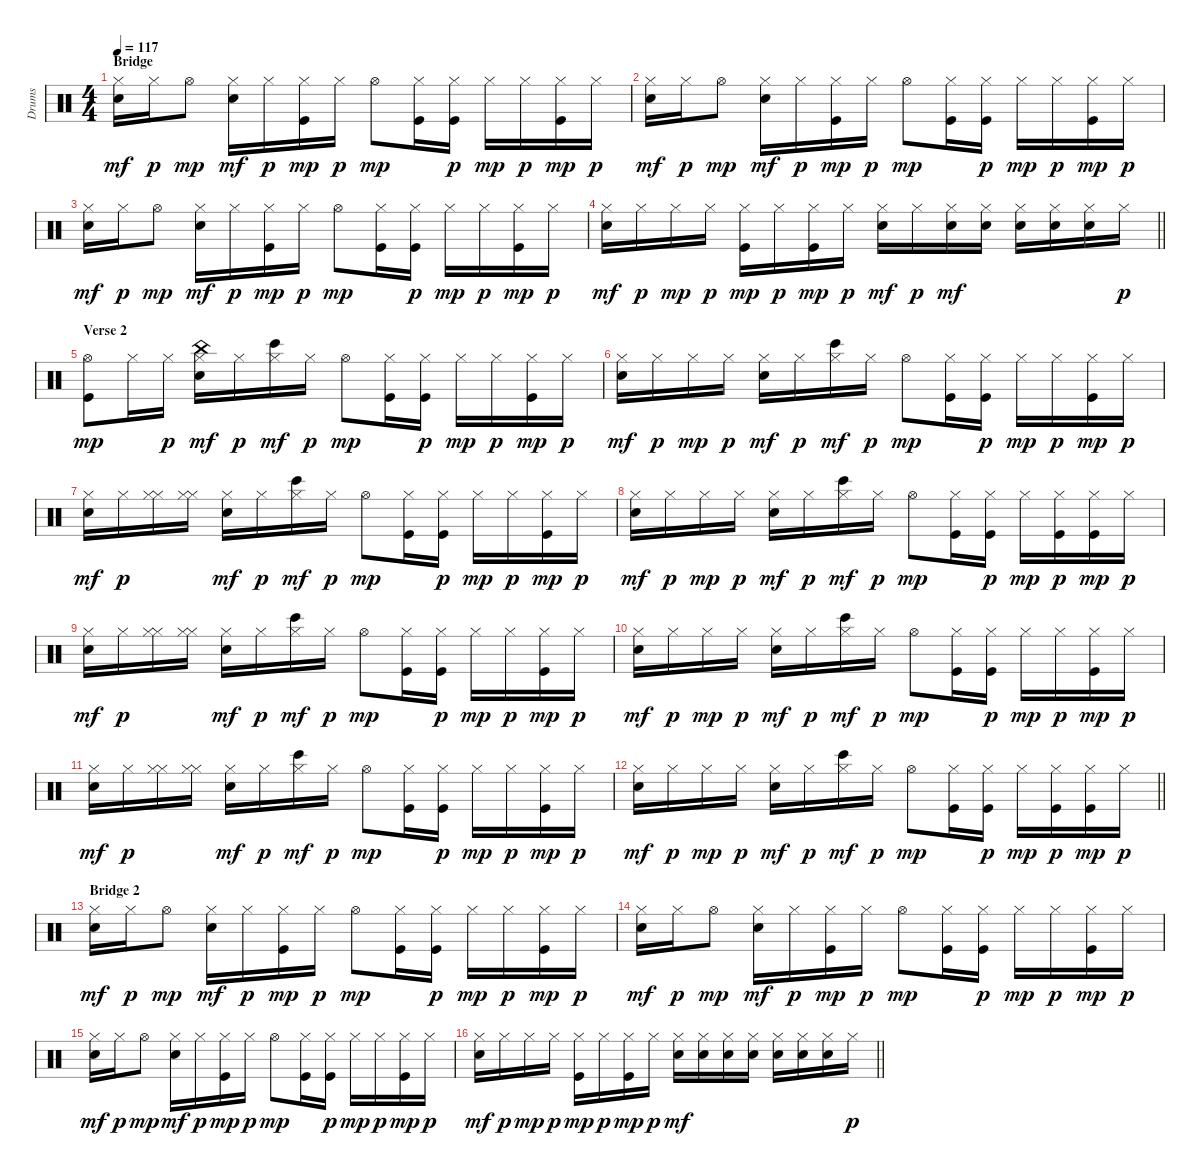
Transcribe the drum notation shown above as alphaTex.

\track ("Drums" "Drums") {instrument percussion}
\staff {score}
\articulation defaults
\ts (4 4)
\section ("" "Bridge")
\tempo 117
\clef neutral
\ks c
("Hi-Hat (closed)" "Electric Snare (hit)").16{dy mf} "Hi-Hat (closed)".16{dy p} "Hi-Hat (open)".8{dy mp} ("Hi-Hat (closed)" "Electric Snare (hit)").16{dy mf} "Hi-Hat (closed)".16{dy p} ("Hi-Hat (closed)" "Kick (hit)").16{dy mp} "Hi-Hat (closed)".16{dy p} "Hi-Hat (open)".8{dy mp} ("Hi-Hat (closed)" "Kick (hit)").16 ("Hi-Hat (closed)" "Kick (hit)").16{dy p} "Hi-Hat (closed)".16{dy mp} "Hi-Hat (closed)".16{dy p} ("Hi-Hat (closed)" "Kick (hit)").16{dy mp} "Hi-Hat (closed)".16{dy p} |
("Hi-Hat (closed)" "Electric Snare (hit)").16{dy mf} "Hi-Hat (closed)".16{dy p} "Hi-Hat (open)".8{dy mp} ("Hi-Hat (closed)" "Electric Snare (hit)").16{dy mf} "Hi-Hat (closed)".16{dy p} ("Hi-Hat (closed)" "Kick (hit)").16{dy mp} "Hi-Hat (closed)".16{dy p} "Hi-Hat (open)".8{dy mp} ("Hi-Hat (closed)" "Kick (hit)").16 ("Hi-Hat (closed)" "Kick (hit)").16{dy p} "Hi-Hat (closed)".16{dy mp} "Hi-Hat (closed)".16{dy p} ("Hi-Hat (closed)" "Kick (hit)").16{dy mp} "Hi-Hat (closed)".16{dy p} |
("Hi-Hat (closed)" "Electric Snare (hit)").16{dy mf} "Hi-Hat (closed)".16{dy p} "Hi-Hat (open)".8{dy mp} ("Hi-Hat (closed)" "Electric Snare (hit)").16{dy mf} "Hi-Hat (closed)".16{dy p} ("Hi-Hat (closed)" "Kick (hit)").16{dy mp} "Hi-Hat (closed)".16{dy p} "Hi-Hat (open)".8{dy mp} ("Hi-Hat (closed)" "Kick (hit)").16 ("Hi-Hat (closed)" "Kick (hit)").16{dy p} "Hi-Hat (closed)".16{dy mp} "Hi-Hat (closed)".16{dy p} ("Hi-Hat (closed)" "Kick (hit)").16{dy mp} "Hi-Hat (closed)".16{dy p} |
\barLineRight lightlight
("Hi-Hat (closed)" "Electric Snare (hit)").16{dy mf} "Hi-Hat (closed)".16{dy p} "Hi-Hat (closed)".16{dy mp} "Hi-Hat (closed)".16{dy p} ("Hi-Hat (closed)" "Kick (hit)").16{dy mp} "Hi-Hat (closed)".16{dy p} ("Hi-Hat (closed)" "Kick (hit)").16{dy mp} "Hi-Hat (closed)".16{dy p} ("Hi-Hat (closed)" "Electric Snare (hit)").16{dy mf} "Hi-Hat (closed)".16{dy p} ("Hi-Hat (closed)" "Electric Snare (hit)").16{dy mf} ("Hi-Hat (closed)" "Electric Snare (hit)").16 ("Hi-Hat (closed)" "Electric Snare (hit)").16 ("Hi-Hat (closed)" "Electric Snare (hit)").16 ("Hi-Hat (closed)" "Electric Snare (hit)").16 "Hi-Hat (closed)".16{dy p} |
\section ("" "Verse 2")
("Hi-Hat (open)" "Kick (hit)").8{dy mp} "Hi-Hat (closed)".16 "Hi-Hat (closed)".16{dy p} ("Hi-Hat (closed)" "China (hit)" "Electric Snare (hit)").16{dy mf} "Hi-Hat (closed)".16{dy p} ("Hi-Hat (closed)" "Bongo High (hit)").16{dy mf} "Hi-Hat (closed)".16{dy p} "Hi-Hat (open)".8{dy mp} ("Hi-Hat (closed)" "Kick (hit)").16 ("Hi-Hat (closed)" "Kick (hit)").16{dy p} "Hi-Hat (closed)".16{dy mp} "Hi-Hat (closed)".16{dy p} ("Hi-Hat (closed)" "Kick (hit)").16{dy mp} "Hi-Hat (closed)".16{dy p} |
("Hi-Hat (closed)" "Electric Snare (hit)").16{dy mf} "Hi-Hat (closed)".16{dy p} "Hi-Hat (closed)".16{dy mp} "Hi-Hat (closed)".16{dy p} ("Hi-Hat (closed)" "Electric Snare (hit)").16{dy mf} "Hi-Hat (closed)".16{dy p} ("Hi-Hat (closed)" "Bongo High (hit)").16{dy mf} "Hi-Hat (closed)".16{dy p} "Hi-Hat (open)".8{dy mp} ("Hi-Hat (closed)" "Kick (hit)").16 ("Hi-Hat (closed)" "Kick (hit)").16{dy p} "Hi-Hat (closed)".16{dy mp} "Hi-Hat (closed)".16{dy p} ("Hi-Hat (closed)" "Kick (hit)").16{dy mp} "Hi-Hat (closed)".16{dy p} |
("Hi-Hat (closed)" "Electric Snare (hit)").16{dy mf} "Hi-Hat (closed)".16{dy p} ("Hi-Hat (closed)" "Hi-Hat (closed)").16 ("Hi-Hat (closed)" "Hi-Hat (closed)").16 ("Hi-Hat (closed)" "Electric Snare (hit)").16{dy mf} "Hi-Hat (closed)".16{dy p} ("Hi-Hat (closed)" "Bongo High (hit)").16{dy mf} "Hi-Hat (closed)".16{dy p} "Hi-Hat (open)".8{dy mp} ("Hi-Hat (closed)" "Kick (hit)").16 ("Hi-Hat (closed)" "Kick (hit)").16{dy p} "Hi-Hat (closed)".16{dy mp} "Hi-Hat (closed)".16{dy p} ("Hi-Hat (closed)" "Kick (hit)").16{dy mp} "Hi-Hat (closed)".16{dy p} |
("Hi-Hat (closed)" "Electric Snare (hit)").16{dy mf} "Hi-Hat (closed)".16{dy p} "Hi-Hat (closed)".16{dy mp} "Hi-Hat (closed)".16{dy p} ("Hi-Hat (closed)" "Electric Snare (hit)").16{dy mf} "Hi-Hat (closed)".16{dy p} ("Hi-Hat (closed)" "Bongo High (hit)").16{dy mf} "Hi-Hat (closed)".16{dy p} "Hi-Hat (open)".8{dy mp} ("Hi-Hat (closed)" "Kick (hit)").16 ("Hi-Hat (closed)" "Kick (hit)").16{dy p} "Hi-Hat (closed)".16{dy mp} ("Hi-Hat (closed)" "Kick (hit)").16{dy p} ("Hi-Hat (closed)" "Kick (hit)").16{dy mp} "Hi-Hat (closed)".16{dy p} |
("Hi-Hat (closed)" "Electric Snare (hit)").16{dy mf} "Hi-Hat (closed)".16{dy p} ("Hi-Hat (closed)" "Hi-Hat (closed)").16 ("Hi-Hat (closed)" "Hi-Hat (closed)").16 ("Hi-Hat (closed)" "Electric Snare (hit)").16{dy mf} "Hi-Hat (closed)".16{dy p} ("Hi-Hat (closed)" "Bongo High (hit)").16{dy mf} "Hi-Hat (closed)".16{dy p} "Hi-Hat (open)".8{dy mp} ("Hi-Hat (closed)" "Kick (hit)").16 ("Hi-Hat (closed)" "Kick (hit)").16{dy p} "Hi-Hat (closed)".16{dy mp} "Hi-Hat (closed)".16{dy p} ("Hi-Hat (closed)" "Kick (hit)").16{dy mp} "Hi-Hat (closed)".16{dy p} |
("Hi-Hat (closed)" "Electric Snare (hit)").16{dy mf} "Hi-Hat (closed)".16{dy p} "Hi-Hat (closed)".16{dy mp} "Hi-Hat (closed)".16{dy p} ("Hi-Hat (closed)" "Electric Snare (hit)").16{dy mf} "Hi-Hat (closed)".16{dy p} ("Hi-Hat (closed)" "Bongo High (hit)").16{dy mf} "Hi-Hat (closed)".16{dy p} "Hi-Hat (open)".8{dy mp} ("Hi-Hat (closed)" "Kick (hit)").16 ("Hi-Hat (closed)" "Kick (hit)").16{dy p} "Hi-Hat (closed)".16{dy mp} "Hi-Hat (closed)".16{dy p} ("Hi-Hat (closed)" "Kick (hit)").16{dy mp} "Hi-Hat (closed)".16{dy p} |
("Hi-Hat (closed)" "Electric Snare (hit)").16{dy mf} "Hi-Hat (closed)".16{dy p} ("Hi-Hat (closed)" "Hi-Hat (closed)").16 ("Hi-Hat (closed)" "Hi-Hat (closed)").16 ("Hi-Hat (closed)" "Electric Snare (hit)").16{dy mf} "Hi-Hat (closed)".16{dy p} ("Hi-Hat (closed)" "Bongo High (hit)").16{dy mf} "Hi-Hat (closed)".16{dy p} "Hi-Hat (open)".8{dy mp} ("Hi-Hat (closed)" "Kick (hit)").16 ("Hi-Hat (closed)" "Kick (hit)").16{dy p} "Hi-Hat (closed)".16{dy mp} "Hi-Hat (closed)".16{dy p} ("Hi-Hat (closed)" "Kick (hit)").16{dy mp} "Hi-Hat (closed)".16{dy p} |
\barLineRight lightlight
("Hi-Hat (closed)" "Electric Snare (hit)").16{dy mf} "Hi-Hat (closed)".16{dy p} "Hi-Hat (closed)".16{dy mp} "Hi-Hat (closed)".16{dy p} ("Hi-Hat (closed)" "Electric Snare (hit)").16{dy mf} "Hi-Hat (closed)".16{dy p} ("Hi-Hat (closed)" "Bongo High (hit)").16{dy mf} "Hi-Hat (closed)".16{dy p} "Hi-Hat (open)".8{dy mp} ("Hi-Hat (closed)" "Kick (hit)").16 ("Hi-Hat (closed)" "Kick (hit)").16{dy p} "Hi-Hat (closed)".16{dy mp} ("Hi-Hat (closed)" "Kick (hit)").16{dy p} ("Hi-Hat (closed)" "Kick (hit)").16{dy mp} "Hi-Hat (closed)".16{dy p} |
\section ("" "Bridge 2")
("Hi-Hat (closed)" "Electric Snare (hit)").16{dy mf} "Hi-Hat (closed)".16{dy p} "Hi-Hat (open)".8{dy mp} ("Hi-Hat (closed)" "Electric Snare (hit)").16{dy mf} "Hi-Hat (closed)".16{dy p} ("Hi-Hat (closed)" "Kick (hit)").16{dy mp} "Hi-Hat (closed)".16{dy p} "Hi-Hat (open)".8{dy mp} ("Hi-Hat (closed)" "Kick (hit)").16 ("Hi-Hat (closed)" "Kick (hit)").16{dy p} "Hi-Hat (closed)".16{dy mp} "Hi-Hat (closed)".16{dy p} ("Hi-Hat (closed)" "Kick (hit)").16{dy mp} "Hi-Hat (closed)".16{dy p} |
("Hi-Hat (closed)" "Electric Snare (hit)").16{dy mf} "Hi-Hat (closed)".16{dy p} "Hi-Hat (open)".8{dy mp} ("Hi-Hat (closed)" "Electric Snare (hit)").16{dy mf} "Hi-Hat (closed)".16{dy p} ("Hi-Hat (closed)" "Kick (hit)").16{dy mp} "Hi-Hat (closed)".16{dy p} "Hi-Hat (open)".8{dy mp} ("Hi-Hat (closed)" "Kick (hit)").16 ("Hi-Hat (closed)" "Kick (hit)").16{dy p} "Hi-Hat (closed)".16{dy mp} "Hi-Hat (closed)".16{dy p} ("Hi-Hat (closed)" "Kick (hit)").16{dy mp} "Hi-Hat (closed)".16{dy p} |
("Hi-Hat (closed)" "Electric Snare (hit)").16{dy mf} "Hi-Hat (closed)".16{dy p} "Hi-Hat (open)".8{dy mp} ("Hi-Hat (closed)" "Electric Snare (hit)").16{dy mf} "Hi-Hat (closed)".16{dy p} ("Hi-Hat (closed)" "Kick (hit)").16{dy mp} "Hi-Hat (closed)".16{dy p} "Hi-Hat (open)".8{dy mp} ("Hi-Hat (closed)" "Kick (hit)").16 ("Hi-Hat (closed)" "Kick (hit)").16{dy p} "Hi-Hat (closed)".16{dy mp} "Hi-Hat (closed)".16{dy p} ("Hi-Hat (closed)" "Kick (hit)").16{dy mp} "Hi-Hat (closed)".16{dy p} |
\barLineRight lightlight
("Hi-Hat (closed)" "Electric Snare (hit)").16{dy mf} "Hi-Hat (closed)".16{dy p} "Hi-Hat (closed)".16{dy mp} "Hi-Hat (closed)".16{dy p} ("Hi-Hat (closed)" "Kick (hit)").16{dy mp} "Hi-Hat (closed)".16{dy p} ("Hi-Hat (closed)" "Kick (hit)").16{dy mp} "Hi-Hat (closed)".16{dy p} ("Hi-Hat (closed)" "Electric Snare (hit)").16{dy mf} ("Hi-Hat (closed)" "Electric Snare (hit)").16 ("Hi-Hat (closed)" "Electric Snare (hit)").16 ("Hi-Hat (closed)" "Electric Snare (hit)").16 ("Hi-Hat (closed)" "Electric Snare (hit)").16 ("Hi-Hat (closed)" "Electric Snare (hit)").16 ("Hi-Hat (closed)" "Electric Snare (hit)").16 "Hi-Hat (closed)".16{dy p}
